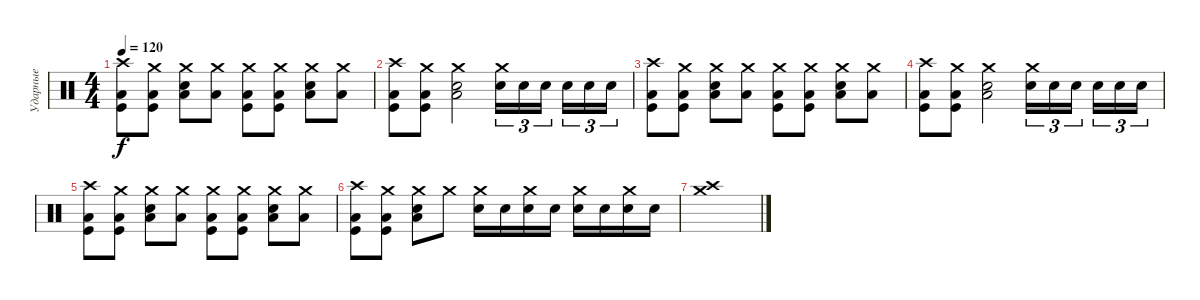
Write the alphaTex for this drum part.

\track ("Ударные" "Ударные") {instrument percussion}
\staff {score}
\articulation defaults
\ts (4 4)
\tempo 120
\clef neutral
\ks c
("Low Tom (hit)" "Kick (hit)" "Crash high (hit)").8{dy f} ("Low Tom (hit)" "Kick (hit)" "Crash medium (hit)").8 ("Low Tom (hit)" "Snare (hit) 2" "Crash medium (hit)").8 ("Low Tom (hit)" "Crash medium (hit)").8 ("Low Tom (hit)" "Kick (hit)" "Crash medium (hit)").8 ("Low Tom (hit)" "Kick (hit)" "Crash medium (hit)").8 ("Low Tom (hit)" "Snare (hit) 2" "Crash medium (hit)").8 ("Low Tom (hit)" "Crash medium (hit)").8 |
("Low Tom (hit)" "Kick (hit)" "Crash high (hit)").8 ("Low Tom (hit)" "Kick (hit)" "Crash medium (hit)").8 ("Low Tom (hit)" "Snare (hit) 2" "Crash medium (hit)").2 ("Snare (hit) 2" "Crash medium (hit)").16{tu (3 2)} "Snare (hit) 2".16{tu (3 2)} "Snare (hit) 2".16{tu (3 2) beam splitsecondary} "Snare (hit) 2".16{tu (3 2)} "Snare (hit) 2".16{tu (3 2)} "Snare (hit) 2".16{tu (3 2)} |
("Low Tom (hit)" "Kick (hit)" "Crash high (hit)").8 ("Low Tom (hit)" "Kick (hit)" "Crash medium (hit)").8 ("Low Tom (hit)" "Snare (hit) 2" "Crash medium (hit)").8 ("Low Tom (hit)" "Crash medium (hit)").8 ("Low Tom (hit)" "Kick (hit)" "Crash medium (hit)").8 ("Low Tom (hit)" "Kick (hit)" "Crash medium (hit)").8 ("Low Tom (hit)" "Snare (hit) 2" "Crash medium (hit)").8 ("Low Tom (hit)" "Crash medium (hit)").8 |
("Low Tom (hit)" "Kick (hit)" "Crash high (hit)").8 ("Low Tom (hit)" "Kick (hit)" "Crash medium (hit)").8 ("Low Tom (hit)" "Snare (hit) 2" "Crash medium (hit)").2 ("Snare (hit) 2" "Crash medium (hit)").16{tu (3 2)} "Snare (hit) 2".16{tu (3 2)} "Snare (hit) 2".16{tu (3 2) beam splitsecondary} "Snare (hit) 2".16{tu (3 2)} "Snare (hit) 2".16{tu (3 2)} "Snare (hit) 2".16{tu (3 2)} |
("Low Tom (hit)" "Kick (hit)" "Crash high (hit)").8 ("Low Tom (hit)" "Kick (hit)" "Crash medium (hit)").8 ("Low Tom (hit)" "Snare (hit) 2" "Crash medium (hit)").8 ("Low Tom (hit)" "Crash medium (hit)").8 ("Low Tom (hit)" "Kick (hit)" "Crash medium (hit)").8 ("Low Tom (hit)" "Kick (hit)" "Crash medium (hit)").8 ("Low Tom (hit)" "Snare (hit) 2" "Crash medium (hit)").8 ("Low Tom (hit)" "Crash medium (hit)").8 |
("Low Tom (hit)" "Kick (hit)" "Crash high (hit)").8 ("Low Tom (hit)" "Kick (hit)" "Crash medium (hit)").8 ("Low Tom (hit)" "Snare (hit) 2" "Crash medium (hit)").8 "Crash medium (hit)".8 ("Snare (hit) 2" "Crash medium (hit)").16 "Snare (hit) 2".16 ("Snare (hit) 2" "Crash medium (hit)").16 "Snare (hit) 2".16 ("Snare (hit) 2" "Crash medium (hit)").16 "Snare (hit) 2".16 ("Snare (hit) 2" "Crash medium (hit)").16 "Snare (hit) 2".16 |
("Crash high (hit)" "Crash medium (hit)").1
